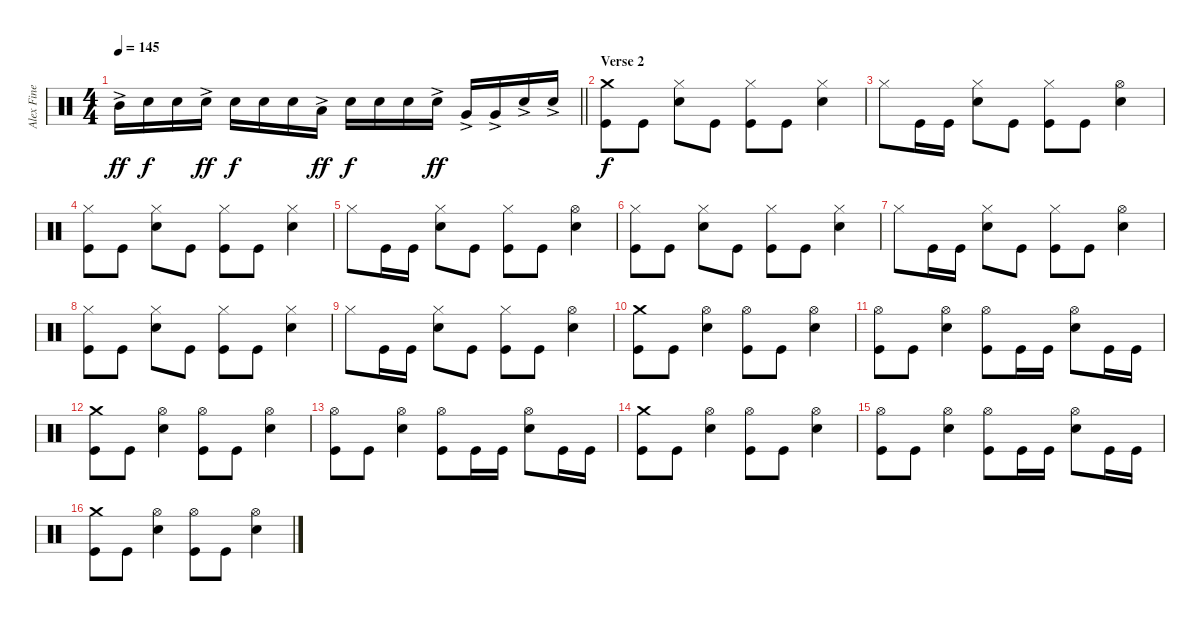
\track ("Alex Fine (Drums)" "Alex Fine ") {instrument percussion}
\staff {score}
\articulation defaults
\ts (4 4)
\tempo 145
\clef neutral
\barLineRight lightlight
\ks c "Mid Tom (hit)"{ac}.16{dy ff} "Snare (hit) 2".16{dy f} "Snare (hit) 2".16 "Snare (hit) 2"{ac}.16{dy ff} "Snare (hit) 2".16{dy f} "Snare (hit) 2".16 "Snare (hit) 2".16 "Low Tom (hit)"{ac}.16{dy ff} "Snare (hit) 2".16{dy f} "Snare (hit) 2".16 "Snare (hit) 2".16 "Snare (hit) 2"{ac}.16{dy ff} "Very Low Tom (hit)"{ac}.16 "Very Low Tom (hit)"{ac}.16 "Snare (hit) 2"{ac}.16 "Snare (hit) 2"{ac}.16
|
\section ("" "Verse 2")
("Crash medium (hit)" "Kick (hit)").8{dy f} "Kick (hit)".8 ("Hi-Hat (closed)" "Snare (hit) 2").8 "Kick (hit)".8 ("Hi-Hat (closed)" "Kick (hit)").8 "Kick (hit)".8 ("Hi-Hat (closed)" "Snare (hit) 2").4 |
"Hi-Hat (closed)".8 "Kick (hit)".16 "Kick (hit)".16 ("Hi-Hat (closed)" "Snare (hit) 2").8 "Kick (hit)".8 ("Hi-Hat (closed)" "Kick (hit)").8 "Kick (hit)".8 ("Hi-Hat (open)" "Snare (hit) 2").4 |
("Hi-Hat (closed)" "Kick (hit)").8 "Kick (hit)".8 ("Hi-Hat (closed)" "Snare (hit) 2").8 "Kick (hit)".8 ("Hi-Hat (closed)" "Kick (hit)").8 "Kick (hit)".8 ("Hi-Hat (closed)" "Snare (hit) 2").4 |
"Hi-Hat (closed)".8 "Kick (hit)".16 "Kick (hit)".16 ("Hi-Hat (closed)" "Snare (hit) 2").8 "Kick (hit)".8 ("Hi-Hat (closed)" "Kick (hit)").8 "Kick (hit)".8 ("Hi-Hat (open)" "Snare (hit) 2").4 |
("Hi-Hat (closed)" "Kick (hit)").8 "Kick (hit)".8 ("Hi-Hat (closed)" "Snare (hit) 2").8 "Kick (hit)".8 ("Hi-Hat (closed)" "Kick (hit)").8 "Kick (hit)".8 ("Hi-Hat (closed)" "Snare (hit) 2").4 |
"Hi-Hat (closed)".8 "Kick (hit)".16 "Kick (hit)".16 ("Hi-Hat (closed)" "Snare (hit) 2").8 "Kick (hit)".8 ("Hi-Hat (closed)" "Kick (hit)").8 "Kick (hit)".8 ("Hi-Hat (open)" "Snare (hit) 2").4 |
("Hi-Hat (closed)" "Kick (hit)").8 "Kick (hit)".8 ("Hi-Hat (closed)" "Snare (hit) 2").8 "Kick (hit)".8 ("Hi-Hat (closed)" "Kick (hit)").8 "Kick (hit)".8 ("Hi-Hat (closed)" "Snare (hit) 2").4 |
"Hi-Hat (closed)".8 "Kick (hit)".16 "Kick (hit)".16 ("Hi-Hat (closed)" "Snare (hit) 2").8 "Kick (hit)".8 ("Hi-Hat (closed)" "Kick (hit)").8 "Kick (hit)".8 ("Hi-Hat (open)" "Snare (hit) 2").4 |
("Crash medium (hit)" "Kick (hit)").8 "Kick (hit)".8 ("Hi-Hat (open)" "Snare (hit) 2").4 ("Hi-Hat (open)" "Kick (hit)").8 "Kick (hit)".8 ("Hi-Hat (open)" "Snare (hit) 2").4 |
("Hi-Hat (open)" "Kick (hit)").8 "Kick (hit)".8 ("Hi-Hat (open)" "Snare (hit) 2").4 ("Hi-Hat (open)" "Kick (hit)").8 "Kick (hit)".16 "Kick (hit)".16 ("Hi-Hat (open)" "Snare (hit) 2").8 "Kick (hit)".16 "Kick (hit)".16 |
("Crash medium (hit)" "Kick (hit)").8 "Kick (hit)".8 ("Hi-Hat (open)" "Snare (hit) 2").4 ("Hi-Hat (open)" "Kick (hit)").8 "Kick (hit)".8 ("Hi-Hat (open)" "Snare (hit) 2").4 |
("Hi-Hat (open)" "Kick (hit)").8 "Kick (hit)".8 ("Hi-Hat (open)" "Snare (hit) 2").4 ("Hi-Hat (open)" "Kick (hit)").8 "Kick (hit)".16 "Kick (hit)".16 ("Hi-Hat (open)" "Snare (hit) 2").8 "Kick (hit)".16 "Kick (hit)".16 |
("Crash medium (hit)" "Kick (hit)").8 "Kick (hit)".8 ("Hi-Hat (open)" "Snare (hit) 2").4 ("Hi-Hat (open)" "Kick (hit)").8 "Kick (hit)".8 ("Hi-Hat (open)" "Snare (hit) 2").4 |
("Hi-Hat (open)" "Kick (hit)").8 "Kick (hit)".8 ("Hi-Hat (open)" "Snare (hit) 2").4 ("Hi-Hat (open)" "Kick (hit)").8 "Kick (hit)".16 "Kick (hit)".16 ("Hi-Hat (open)" "Snare (hit) 2").8 "Kick (hit)".16 "Kick (hit)".16 |
("Crash medium (hit)" "Kick (hit)").8 "Kick (hit)".8 ("Hi-Hat (open)" "Snare (hit) 2").4 ("Hi-Hat (open)" "Kick (hit)").8 "Kick (hit)".8 ("Hi-Hat (open)" "Snare (hit) 2").4
